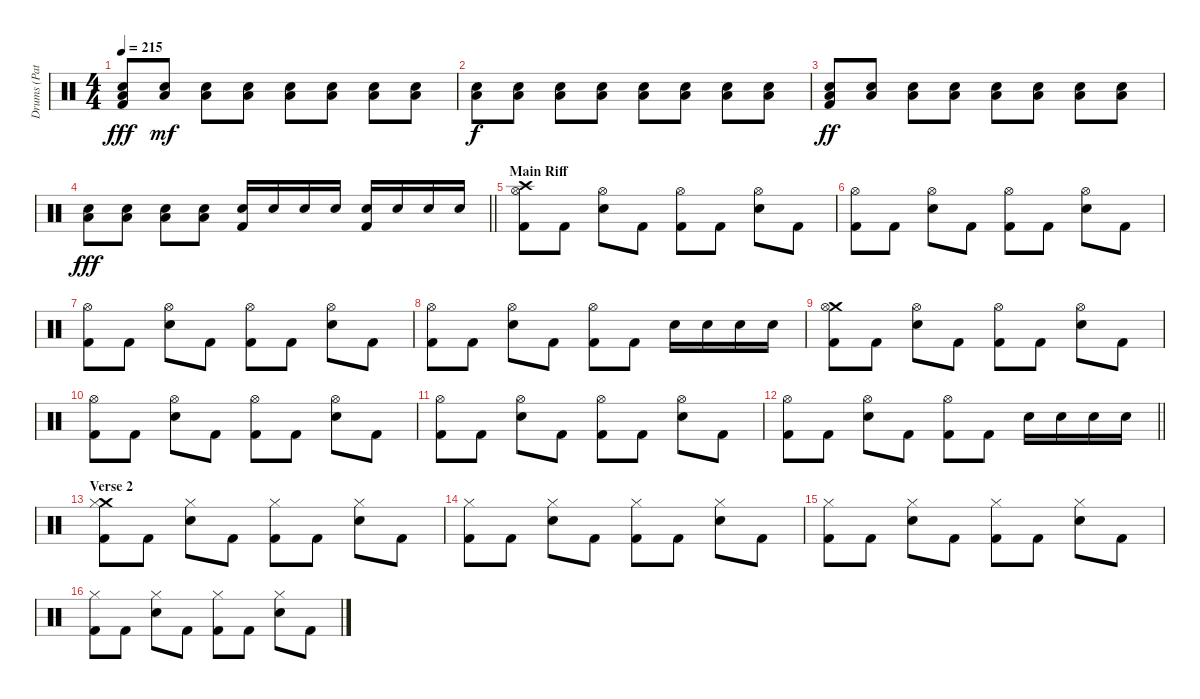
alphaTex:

\track ("Drums (Pat Thetic)" "Drums (Pat") {instrument percussion}
\staff {score}
\articulation defaults
\ts (4 4)
\tempo 215
\clef neutral
\ks c
("Low Tom (hit)" "Snare (hit) 2" "Kick (hit) 2").8{dy fff} ("Low Tom (hit)" "Snare (hit) 2").8{dy mf} ("Low Tom (hit)" "Snare (hit) 2").8 ("Low Tom (hit)" "Snare (hit) 2").8 ("Low Tom (hit)" "Snare (hit) 2").8 ("Low Tom (hit)" "Snare (hit) 2").8 ("Low Tom (hit)" "Snare (hit) 2").8 ("Low Tom (hit)" "Snare (hit) 2").8 |
("Low Tom (hit)" "Snare (hit) 2").8{dy f} ("Low Tom (hit)" "Snare (hit) 2").8 ("Low Tom (hit)" "Snare (hit) 2").8 ("Low Tom (hit)" "Snare (hit) 2").8 ("Low Tom (hit)" "Snare (hit) 2").8 ("Low Tom (hit)" "Snare (hit) 2").8 ("Low Tom (hit)" "Snare (hit) 2").8 ("Low Tom (hit)" "Snare (hit) 2").8 |
("Low Tom (hit)" "Snare (hit) 2" "Kick (hit) 2").8{dy ff} ("Low Tom (hit)" "Snare (hit) 2").8 ("Low Tom (hit)" "Snare (hit) 2").8 ("Low Tom (hit)" "Snare (hit) 2").8 ("Low Tom (hit)" "Snare (hit) 2").8 ("Low Tom (hit)" "Snare (hit) 2").8 ("Low Tom (hit)" "Snare (hit) 2").8 ("Low Tom (hit)" "Snare (hit) 2").8 |
\barLineRight lightlight
("Low Tom (hit)" "Snare (hit) 2").8{dy fff} ("Low Tom (hit)" "Snare (hit) 2").8 ("Low Tom (hit)" "Snare (hit) 2").8 ("Low Tom (hit)" "Snare (hit) 2").8 ("Snare (hit) 2" "Kick (hit) 2").16 "Snare (hit) 2".16 "Snare (hit) 2".16 "Snare (hit) 2".16 ("Snare (hit) 2" "Kick (hit) 2").16 "Snare (hit) 2".16 "Snare (hit) 2".16 "Snare (hit) 2".16 |
\section ("" "Main Riff")
("Crash high (hit)" "Hi-Hat (open)" "Kick (hit) 2").8 "Kick (hit) 2".8 ("Hi-Hat (open)" "Snare (hit) 2").8 "Kick (hit) 2".8 ("Hi-Hat (open)" "Kick (hit) 2").8 "Kick (hit) 2".8 ("Hi-Hat (open)" "Snare (hit) 2").8 "Kick (hit) 2".8 |
("Hi-Hat (open)" "Kick (hit) 2").8 "Kick (hit) 2".8 ("Hi-Hat (open)" "Snare (hit) 2").8 "Kick (hit) 2".8 ("Hi-Hat (open)" "Kick (hit) 2").8 "Kick (hit) 2".8 ("Hi-Hat (open)" "Snare (hit) 2").8 "Kick (hit) 2".8 |
("Hi-Hat (open)" "Kick (hit) 2").8 "Kick (hit) 2".8 ("Hi-Hat (open)" "Snare (hit) 2").8 "Kick (hit) 2".8 ("Hi-Hat (open)" "Kick (hit) 2").8 "Kick (hit) 2".8 ("Hi-Hat (open)" "Snare (hit) 2").8 "Kick (hit) 2".8 |
("Hi-Hat (open)" "Kick (hit) 2").8 "Kick (hit) 2".8 ("Hi-Hat (open)" "Snare (hit) 2").8 "Kick (hit) 2".8 ("Hi-Hat (open)" "Kick (hit) 2").8 "Kick (hit) 2".8 "Snare (hit) 2".16 "Snare (hit) 2".16 "Snare (hit) 2".16 "Snare (hit) 2".16 |
("Crash medium (hit)" "Hi-Hat (open)" "Kick (hit) 2").8 "Kick (hit) 2".8 ("Hi-Hat (open)" "Snare (hit) 2").8 "Kick (hit) 2".8 ("Hi-Hat (open)" "Kick (hit) 2").8 "Kick (hit) 2".8 ("Hi-Hat (open)" "Snare (hit) 2").8 "Kick (hit) 2".8 |
("Hi-Hat (open)" "Kick (hit) 2").8 "Kick (hit) 2".8 ("Hi-Hat (open)" "Snare (hit) 2").8 "Kick (hit) 2".8 ("Hi-Hat (open)" "Kick (hit) 2").8 "Kick (hit) 2".8 ("Hi-Hat (open)" "Snare (hit) 2").8 "Kick (hit) 2".8 |
("Hi-Hat (open)" "Kick (hit) 2").8 "Kick (hit) 2".8 ("Hi-Hat (open)" "Snare (hit) 2").8 "Kick (hit) 2".8 ("Hi-Hat (open)" "Kick (hit) 2").8 "Kick (hit) 2".8 ("Hi-Hat (open)" "Snare (hit) 2").8 "Kick (hit) 2".8 |
\barLineRight lightlight
("Hi-Hat (open)" "Kick (hit) 2").8 "Kick (hit) 2".8 ("Hi-Hat (open)" "Snare (hit) 2").8 "Kick (hit) 2".8 ("Hi-Hat (open)" "Kick (hit) 2").8 "Kick (hit) 2".8 "Snare (hit) 2".16 "Snare (hit) 2".16 "Snare (hit) 2".16 "Snare (hit) 2".16 |
\section ("" "Verse 2")
("Crash medium (hit)" "Hi-Hat (closed)" "Kick (hit) 2").8 "Kick (hit) 2".8 ("Hi-Hat (closed)" "Snare (hit) 2").8 "Kick (hit) 2".8 ("Hi-Hat (closed)" "Kick (hit) 2").8 "Kick (hit) 2".8 ("Hi-Hat (closed)" "Snare (hit) 2").8 "Kick (hit) 2".8 |
("Hi-Hat (closed)" "Kick (hit) 2").8 "Kick (hit) 2".8 ("Hi-Hat (closed)" "Snare (hit) 2").8 "Kick (hit) 2".8 ("Hi-Hat (closed)" "Kick (hit) 2").8 "Kick (hit) 2".8 ("Hi-Hat (closed)" "Snare (hit) 2").8 "Kick (hit) 2".8 |
("Hi-Hat (closed)" "Kick (hit) 2").8 "Kick (hit) 2".8 ("Hi-Hat (closed)" "Snare (hit) 2").8 "Kick (hit) 2".8 ("Hi-Hat (closed)" "Kick (hit) 2").8 "Kick (hit) 2".8 ("Hi-Hat (closed)" "Snare (hit) 2").8 "Kick (hit) 2".8 |
("Hi-Hat (closed)" "Kick (hit) 2").8 "Kick (hit) 2".8 ("Hi-Hat (closed)" "Snare (hit) 2").8 "Kick (hit) 2".8 ("Hi-Hat (closed)" "Kick (hit) 2").8 "Kick (hit) 2".8 ("Hi-Hat (closed)" "Snare (hit) 2").8 "Kick (hit) 2".8
